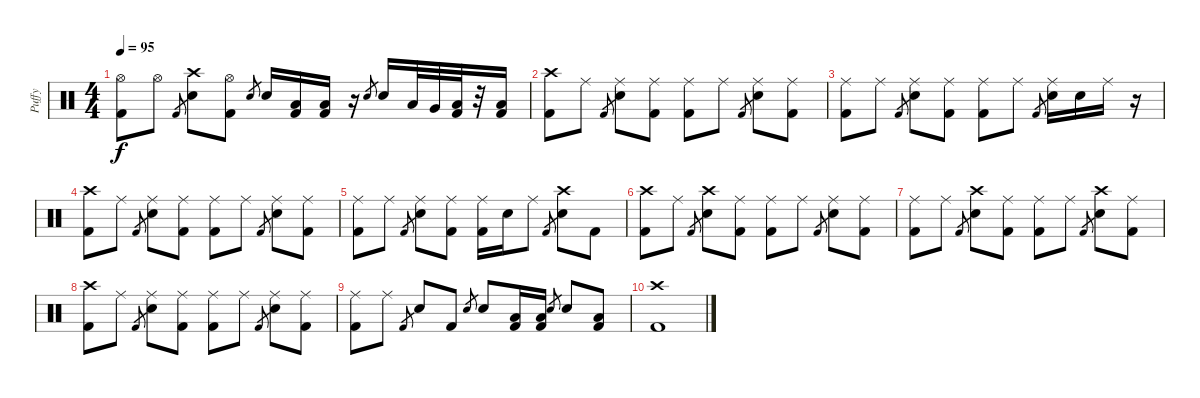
\track ("Puffy" "Puffy") {instrument percussion}
\staff {score}
\articulation defaults
\ts (4 4)
\tempo 95
\clef neutral
\ks c
("Hi-Hat (open)" "Kick (hit) 2").8{dy f} "Hi-Hat (open)".8 "Kick (hit) 2".8{gr} ("Crash high (hit)" "Snare (hit) 2").8 ("Hi-Hat (open)" "Kick (hit) 2").8 "Snare (hit) 2".8{gr} "Snare (hit) 2".16 ("Low Floor Tom (hit)" "Kick (hit) 2").16 ("Low Floor Tom (hit)" "Kick (hit) 2").16 r.16 "Snare (hit) 2".8{gr} "Snare (hit) 2".16 "Low Tom (hit)".32 "Very Low Tom (hit)".32 ("Low Floor Tom (hit)" "Kick (hit) 2").32 r.32 ("Low Floor Tom (hit)" "Kick (hit) 2").16 |
("Crash high (hit)" "Kick (hit) 2").8 "Ride (middle)".8 "Kick (hit) 2".8{gr} ("Ride (middle)" "Snare (hit) 2").8 ("Ride (middle)" "Kick (hit) 2").8 ("Ride (middle)" "Kick (hit) 2").8 "Ride (middle)".8 "Kick (hit) 2".8{gr} ("Ride (middle)" "Snare (hit) 2").8 ("Ride (middle)" "Kick (hit) 2").8 |
("Ride (middle)" "Kick (hit) 2").8 "Ride (middle)".8 "Kick (hit) 2".8{gr} ("Ride (middle)" "Snare (hit) 2").8 ("Ride (middle)" "Kick (hit) 2").8 ("Ride (middle)" "Kick (hit) 2").8 "Ride (middle)".8 "Kick (hit) 2".8{gr} ("Ride (middle)" "Snare (hit) 2").16 "Snare (hit) 2".16 "Ride (middle)".16 r.16 |
("Crash high (hit)" "Kick (hit) 2").8 "Ride (middle)".8 "Kick (hit) 2".8{gr} ("Ride (middle)" "Snare (hit) 2").8 ("Ride (middle)" "Kick (hit) 2").8 ("Ride (middle)" "Kick (hit) 2").8 "Ride (middle)".8 "Kick (hit) 2".8{gr} ("Ride (middle)" "Snare (hit) 2").8 ("Ride (middle)" "Kick (hit) 2").8 |
("Ride (middle)" "Kick (hit) 2").8 "Ride (middle)".8 "Kick (hit) 2".8{gr} ("Ride (middle)" "Snare (hit) 2").8 ("Ride (middle)" "Kick (hit) 2").8 ("Ride (middle)" "Kick (hit) 2").16 "Snare (hit) 2".16 "Ride (middle)".8 "Kick (hit) 2".8{gr} ("Crash high (hit)" "Snare (hit) 2").8 "Kick (hit) 2".8 |
("Crash high (hit)" "Kick (hit) 2").8 "Ride (middle)".8 "Kick (hit) 2".8{gr} ("Crash high (hit)" "Snare (hit) 2").8 ("Ride (middle)" "Kick (hit) 2").8 ("Ride (middle)" "Kick (hit) 2").8 "Ride (middle)".8 "Kick (hit) 2".8{gr} ("Ride (middle)" "Snare (hit) 2").8 ("Ride (middle)" "Kick (hit) 2").8 |
("Ride (middle)" "Kick (hit) 2").8 "Ride (middle)".8 "Kick (hit) 2".8{gr} ("Crash high (hit)" "Snare (hit) 2").8 ("Ride (middle)" "Kick (hit) 2").8 ("Ride (middle)" "Kick (hit) 2").8 "Ride (middle)".8 "Kick (hit) 2".8{gr} ("Crash high (hit)" "Snare (hit) 2").8 ("Ride (middle)" "Kick (hit) 2").8 |
("Crash high (hit)" "Kick (hit) 2").8 "Ride (middle)".8 "Kick (hit) 2".8{gr} ("Ride (middle)" "Snare (hit) 2").8 ("Ride (middle)" "Kick (hit) 2").8 ("Ride (middle)" "Kick (hit) 2").8 "Ride (middle)".8 "Kick (hit) 2".8{gr} ("Ride (middle)" "Snare (hit) 2").8 ("Ride (middle)" "Kick (hit) 2").8 |
("Ride (middle)" "Kick (hit) 2").8 "Ride (middle)".8 "Kick (hit) 2".8{gr} "Snare (hit) 2".8 "Kick (hit) 2".8 "Snare (hit) 2".8{gr} "Snare (hit) 2".8 ("Low Floor Tom (hit)" "Kick (hit) 2").16 ("Low Floor Tom (hit)" "Kick (hit) 2").16 "Snare (hit) 2".8{gr} "Snare (hit) 2".8 ("Low Floor Tom (hit)" "Kick (hit) 2").8 |
("Crash high (hit)" "Kick (hit) 2").1
